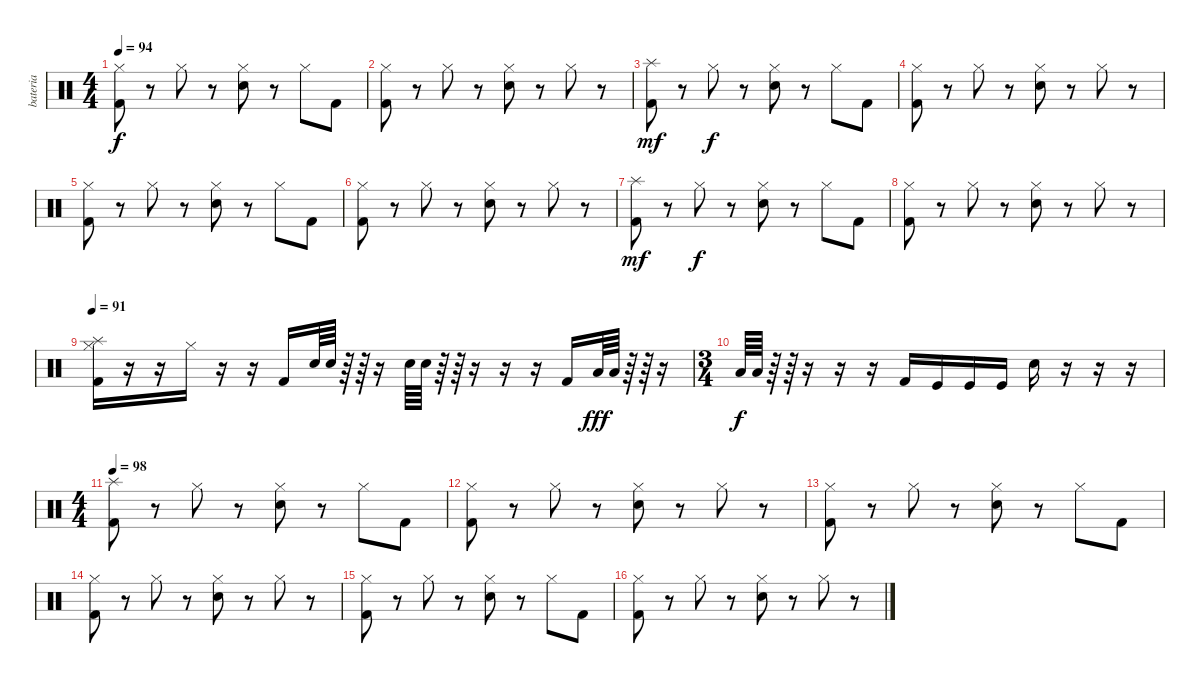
\track ("bateria" "bateria") {instrument percussion}
\staff {score}
\articulation defaults
\ts (4 4)
\tempo 94
\clef neutral
\ks c
("Hi-Hat (closed)" "Kick (hit) 2").8{dy f} r.8 "Hi-Hat (closed)".8 r.8 ("Hi-Hat (closed)" "Snare (hit) 2").8 r.8 "Hi-Hat (closed)".8 "Kick (hit) 2".8 |
("Hi-Hat (closed)" "Kick (hit) 2").8 r.8 "Hi-Hat (closed)".8 r.8 ("Hi-Hat (closed)" "Snare (hit) 2").8 r.8 "Hi-Hat (closed)".8 r.8 |
("Splash (hit)" "Kick (hit) 2").8{dy mf} r.8 "Hi-Hat (closed)".8{dy f} r.8 ("Hi-Hat (closed)" "Snare (hit) 2").8 r.8 "Hi-Hat (closed)".8 "Kick (hit) 2".8 |
("Hi-Hat (closed)" "Kick (hit) 2").8 r.8 "Hi-Hat (closed)".8 r.8 ("Hi-Hat (closed)" "Snare (hit) 2").8 r.8 "Hi-Hat (closed)".8 r.8 |
("Hi-Hat (closed)" "Kick (hit) 2").8 r.8 "Hi-Hat (closed)".8 r.8 ("Hi-Hat (closed)" "Snare (hit) 2").8 r.8 "Hi-Hat (closed)".8 "Kick (hit) 2".8 |
("Hi-Hat (closed)" "Kick (hit) 2").8 r.8 "Hi-Hat (closed)".8 r.8 ("Hi-Hat (closed)" "Snare (hit) 2").8 r.8 "Hi-Hat (closed)".8 r.8 |
("Splash (hit)" "Kick (hit) 2").8{dy mf} r.8 "Hi-Hat (closed)".8{dy f} r.8 ("Hi-Hat (closed)" "Snare (hit) 2").8 r.8 "Hi-Hat (closed)".8 "Kick (hit) 2".8 |
("Hi-Hat (closed)" "Kick (hit) 2").8 r.8 "Hi-Hat (closed)".8 r.8 ("Hi-Hat (closed)" "Snare (hit) 2").8 r.8 "Hi-Hat (closed)".8 r.8 |
\tempo 91
("Hi-Hat (closed)" "Splash (hit)" "Kick (hit) 2").16 r.16 r.16 "Hi-Hat (closed)".16 r.16 r.16 "Kick (hit) 2".16 "Snare (hit) 2".64 "Snare (hit) 2".64 r.64 r.64 r.16 "Snare (hit) 2".64 "Snare (hit) 2".64 r.64 r.64 r.16 r.16 r.16 "Kick (hit) 2".16 "Low Floor Tom (hit)".64{dy fff} "Low Floor Tom (hit)".64 r.64 r.64 r.16 |
\ts (3 4)
"Low Floor Tom (hit)".64{dy f} "Low Floor Tom (hit)".64 r.64 r.64 r.16 r.16 r.16 "Kick (hit) 2".16 "Kick (hit)".16 "Kick (hit)".16 "Kick (hit)".16 "Snare (hit) 2".16 r.16 r.16 r.16 |
\ts (4 4)
\tempo 98
("Splash (hit)" "Kick (hit) 2").8 r.8 "Hi-Hat (closed)".8 r.8 ("Hi-Hat (closed)" "Snare (hit) 2").8 r.8 "Hi-Hat (closed)".8 "Kick (hit) 2".8 |
("Hi-Hat (closed)" "Kick (hit) 2").8 r.8 "Hi-Hat (closed)".8 r.8 ("Hi-Hat (closed)" "Snare (hit) 2").8 r.8 "Hi-Hat (closed)".8 r.8 |
("Hi-Hat (closed)" "Kick (hit) 2").8 r.8 "Hi-Hat (closed)".8 r.8 ("Hi-Hat (closed)" "Snare (hit) 2").8 r.8 "Hi-Hat (closed)".8 "Kick (hit) 2".8 |
("Hi-Hat (closed)" "Kick (hit) 2").8 r.8 "Hi-Hat (closed)".8 r.8 ("Hi-Hat (closed)" "Snare (hit) 2").8 r.8 "Hi-Hat (closed)".8 r.8 |
("Hi-Hat (closed)" "Kick (hit) 2").8 r.8 "Hi-Hat (closed)".8 r.8 ("Hi-Hat (closed)" "Snare (hit) 2").8 r.8 "Hi-Hat (closed)".8 "Kick (hit) 2".8 |
("Hi-Hat (closed)" "Kick (hit) 2").8 r.8 "Hi-Hat (closed)".8 r.8 ("Hi-Hat (closed)" "Snare (hit) 2").8 r.8 "Hi-Hat (closed)".8 r.8
